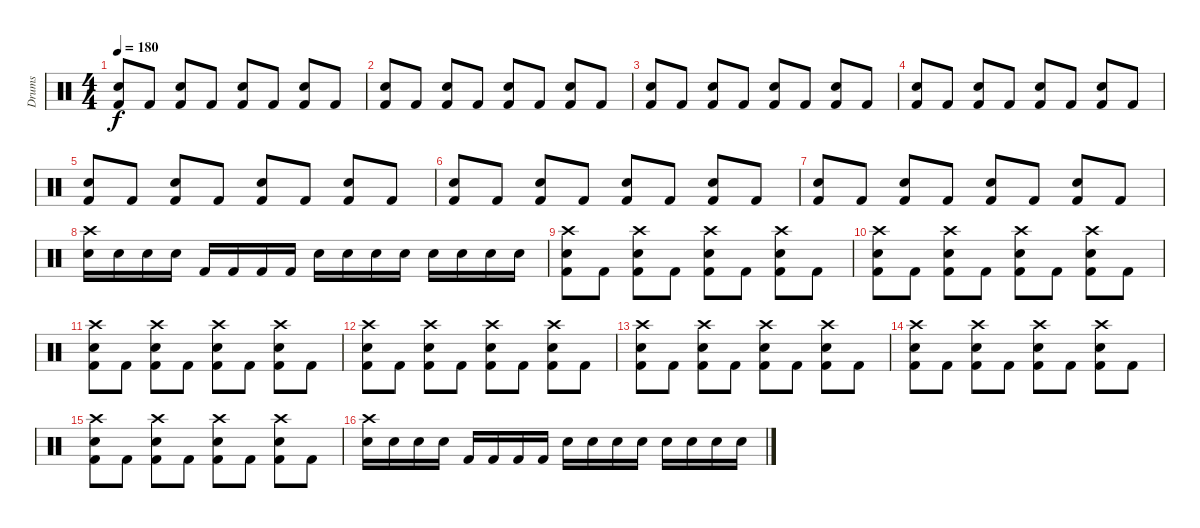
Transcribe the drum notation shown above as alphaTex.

\track ("Drums" "Drums") {instrument percussion}
\staff {score}
\articulation defaults
\ts (4 4)
\tempo 180
\clef neutral
\ks c
("Snare (hit) 2" "Kick (hit) 2").8{dy f} "Kick (hit) 2".8 ("Snare (hit) 2" "Kick (hit) 2").8 "Kick (hit) 2".8 ("Snare (hit) 2" "Kick (hit) 2").8 "Kick (hit) 2".8 ("Snare (hit) 2" "Kick (hit) 2").8 "Kick (hit) 2".8 |
("Snare (hit) 2" "Kick (hit) 2").8 "Kick (hit) 2".8 ("Snare (hit) 2" "Kick (hit) 2").8 "Kick (hit) 2".8 ("Snare (hit) 2" "Kick (hit) 2").8 "Kick (hit) 2".8 ("Snare (hit) 2" "Kick (hit) 2").8 "Kick (hit) 2".8 |
("Snare (hit) 2" "Kick (hit) 2").8 "Kick (hit) 2".8 ("Snare (hit) 2" "Kick (hit) 2").8 "Kick (hit) 2".8 ("Snare (hit) 2" "Kick (hit) 2").8 "Kick (hit) 2".8 ("Snare (hit) 2" "Kick (hit) 2").8 "Kick (hit) 2".8 |
("Snare (hit) 2" "Kick (hit) 2").8 "Kick (hit) 2".8 ("Snare (hit) 2" "Kick (hit) 2").8 "Kick (hit) 2".8 ("Snare (hit) 2" "Kick (hit) 2").8 "Kick (hit) 2".8 ("Snare (hit) 2" "Kick (hit) 2").8 "Kick (hit) 2".8 |
("Snare (hit) 2" "Kick (hit) 2").8 "Kick (hit) 2".8 ("Snare (hit) 2" "Kick (hit) 2").8 "Kick (hit) 2".8 ("Snare (hit) 2" "Kick (hit) 2").8 "Kick (hit) 2".8 ("Snare (hit) 2" "Kick (hit) 2").8 "Kick (hit) 2".8 |
("Snare (hit) 2" "Kick (hit) 2").8 "Kick (hit) 2".8 ("Snare (hit) 2" "Kick (hit) 2").8 "Kick (hit) 2".8 ("Snare (hit) 2" "Kick (hit) 2").8 "Kick (hit) 2".8 ("Snare (hit) 2" "Kick (hit) 2").8 "Kick (hit) 2".8 |
("Snare (hit) 2" "Kick (hit) 2").8 "Kick (hit) 2".8 ("Snare (hit) 2" "Kick (hit) 2").8 "Kick (hit) 2".8 ("Snare (hit) 2" "Kick (hit) 2").8 "Kick (hit) 2".8 ("Snare (hit) 2" "Kick (hit) 2").8 "Kick (hit) 2".8 |
("Crash high (hit)" "Snare (hit) 2").16 "Snare (hit) 2".16 "Snare (hit) 2".16 "Snare (hit) 2".16 "Kick (hit) 2".16 "Kick (hit) 2".16 "Kick (hit) 2".16 "Kick (hit) 2".16 "Snare (hit) 2".16 "Snare (hit) 2".16 "Snare (hit) 2".16 "Snare (hit) 2".16 "Snare (hit) 2".16 "Snare (hit) 2".16 "Snare (hit) 2".16 "Snare (hit) 2".16 |
("Snare (hit) 2" "Kick (hit) 2" "Crash high (hit)").8 "Kick (hit) 2".8 ("Snare (hit) 2" "Kick (hit) 2" "Crash high (hit)").8 "Kick (hit) 2".8 ("Snare (hit) 2" "Kick (hit) 2" "Crash high (hit)").8 "Kick (hit) 2".8 ("Snare (hit) 2" "Kick (hit) 2" "Crash high (hit)").8 "Kick (hit) 2".8 |
("Snare (hit) 2" "Kick (hit) 2" "Crash high (hit)").8 "Kick (hit) 2".8 ("Snare (hit) 2" "Kick (hit) 2" "Crash high (hit)").8 "Kick (hit) 2".8 ("Snare (hit) 2" "Kick (hit) 2" "Crash high (hit)").8 "Kick (hit) 2".8 ("Snare (hit) 2" "Kick (hit) 2" "Crash high (hit)").8 "Kick (hit) 2".8 |
("Snare (hit) 2" "Kick (hit) 2" "Crash high (hit)").8 "Kick (hit) 2".8 ("Snare (hit) 2" "Kick (hit) 2" "Crash high (hit)").8 "Kick (hit) 2".8 ("Snare (hit) 2" "Kick (hit) 2" "Crash high (hit)").8 "Kick (hit) 2".8 ("Snare (hit) 2" "Kick (hit) 2" "Crash high (hit)").8 "Kick (hit) 2".8 |
("Snare (hit) 2" "Kick (hit) 2" "Crash high (hit)").8 "Kick (hit) 2".8 ("Snare (hit) 2" "Kick (hit) 2" "Crash high (hit)").8 "Kick (hit) 2".8 ("Snare (hit) 2" "Kick (hit) 2" "Crash high (hit)").8 "Kick (hit) 2".8 ("Snare (hit) 2" "Kick (hit) 2" "Crash high (hit)").8 "Kick (hit) 2".8 |
("Snare (hit) 2" "Kick (hit) 2" "Crash high (hit)").8 "Kick (hit) 2".8 ("Snare (hit) 2" "Kick (hit) 2" "Crash high (hit)").8 "Kick (hit) 2".8 ("Snare (hit) 2" "Kick (hit) 2" "Crash high (hit)").8 "Kick (hit) 2".8 ("Snare (hit) 2" "Kick (hit) 2" "Crash high (hit)").8 "Kick (hit) 2".8 |
("Snare (hit) 2" "Kick (hit) 2" "Crash high (hit)").8 "Kick (hit) 2".8 ("Snare (hit) 2" "Kick (hit) 2" "Crash high (hit)").8 "Kick (hit) 2".8 ("Snare (hit) 2" "Kick (hit) 2" "Crash high (hit)").8 "Kick (hit) 2".8 ("Snare (hit) 2" "Kick (hit) 2" "Crash high (hit)").8 "Kick (hit) 2".8 |
("Snare (hit) 2" "Kick (hit) 2" "Crash high (hit)").8 "Kick (hit) 2".8 ("Snare (hit) 2" "Kick (hit) 2" "Crash high (hit)").8 "Kick (hit) 2".8 ("Snare (hit) 2" "Kick (hit) 2" "Crash high (hit)").8 "Kick (hit) 2".8 ("Snare (hit) 2" "Kick (hit) 2" "Crash high (hit)").8 "Kick (hit) 2".8 |
("Crash high (hit)" "Snare (hit) 2").16 "Snare (hit) 2".16 "Snare (hit) 2".16 "Snare (hit) 2".16 "Kick (hit) 2".16 "Kick (hit) 2".16 "Kick (hit) 2".16 "Kick (hit) 2".16 "Snare (hit) 2".16 "Snare (hit) 2".16 "Snare (hit) 2".16 "Snare (hit) 2".16 "Snare (hit) 2".16 "Snare (hit) 2".16 "Snare (hit) 2".16 "Snare (hit) 2".16
